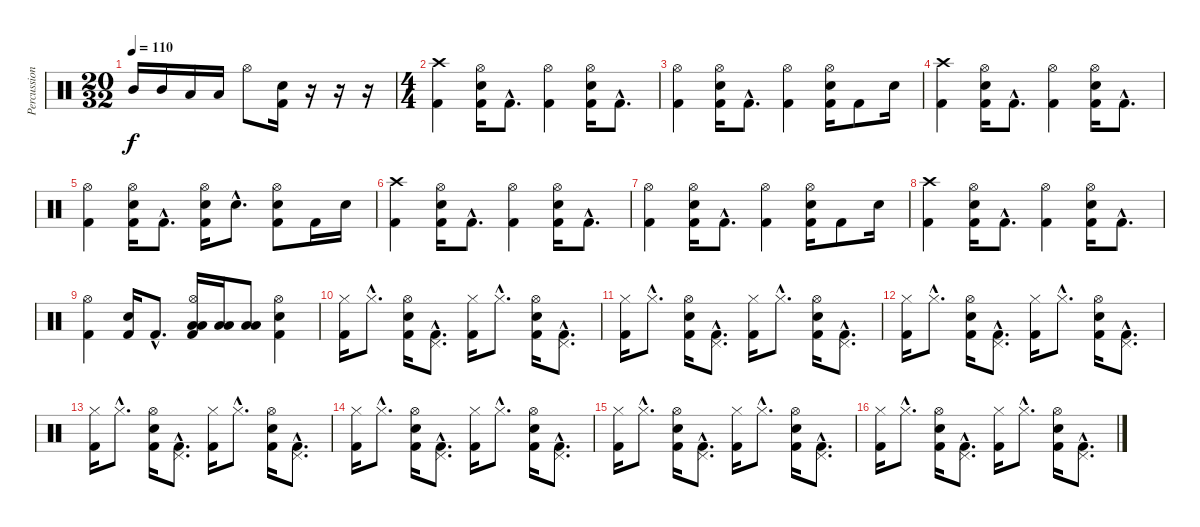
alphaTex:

\track ("Percussions" "Percussion") {instrument percussion}
\staff {score}
\articulation defaults
\ts (20 32)
\tempo 110
\clef neutral
\ks c "Mid Tom (hit)".16{dy f} "Mid Tom (hit)".16 "Low Tom (hit)".16 "Low Floor Tom (hit)".16 "Hi-Hat (open)".8
("Electric Snare (hit)" "Kick (hit) 2").16 r.16 r.16 r.16 |
\ts (4 4)
("Crash high (hit)" "Kick (hit) 2").4 ("Hi-Hat (open)" "Electric Snare (hit)" "Kick (hit) 2").16 "Kick (hit) 2"{hac}.8{d} ("Hi-Hat (open)" "Kick (hit) 2").4 ("Hi-Hat (open)" "Electric Snare (hit)" "Kick (hit) 2").16 "Kick (hit) 2"{hac}.8{d} |
("Hi-Hat (open)" "Kick (hit) 2").4 ("Hi-Hat (open)" "Electric Snare (hit)" "Kick (hit) 2").16 "Kick (hit) 2"{hac}.8{d} ("Hi-Hat (open)" "Kick (hit) 2").4 ("Hi-Hat (open)" "Electric Snare (hit)" "Kick (hit) 2").16 "Kick (hit) 2".8 "Electric Snare (hit)".16 |
("Crash high (hit)" "Kick (hit) 2").4 ("Hi-Hat (open)" "Electric Snare (hit)" "Kick (hit) 2").16 "Kick (hit) 2"{hac}.8{d} ("Hi-Hat (open)" "Kick (hit) 2").4 ("Hi-Hat (open)" "Electric Snare (hit)" "Kick (hit) 2").16 "Kick (hit) 2"{hac}.8{d} |
("Hi-Hat (open)" "Kick (hit) 2").4 ("Hi-Hat (open)" "Electric Snare (hit)" "Kick (hit) 2").16 "Kick (hit) 2"{hac}.8{d} ("Hi-Hat (open)" "Electric Snare (hit)" "Kick (hit) 2").16 "Electric Snare (hit)"{hac}.8{d} ("Hi-Hat (open)" "Electric Snare (hit)" "Kick (hit) 2").8 "Kick (hit) 2".16 "Electric Snare (hit)".16 |
("Crash high (hit)" "Kick (hit) 2").4 ("Hi-Hat (open)" "Electric Snare (hit)" "Kick (hit) 2").16 "Kick (hit) 2"{hac}.8{d} ("Hi-Hat (open)" "Kick (hit) 2").4 ("Hi-Hat (open)" "Electric Snare (hit)" "Kick (hit) 2").16 "Kick (hit) 2"{hac}.8{d} |
("Hi-Hat (open)" "Kick (hit) 2").4 ("Hi-Hat (open)" "Electric Snare (hit)" "Kick (hit) 2").16 "Kick (hit) 2"{hac}.8{d} ("Hi-Hat (open)" "Kick (hit) 2").4 ("Hi-Hat (open)" "Electric Snare (hit)" "Kick (hit) 2").16 "Kick (hit) 2".8 "Electric Snare (hit)".16 |
("Crash high (hit)" "Kick (hit) 2").4 ("Hi-Hat (open)" "Electric Snare (hit)" "Kick (hit) 2").16 "Kick (hit) 2"{hac}.8{d} ("Hi-Hat (open)" "Kick (hit) 2").4 ("Hi-Hat (open)" "Electric Snare (hit)" "Kick (hit) 2").16 "Kick (hit) 2"{hac}.8{d} |
("Hi-Hat (open)" "Kick (hit) 2").4 ("Electric Snare (hit)" "Kick (hit) 2").16 "Kick (hit) 2"{hac}.8{d} ("Hi-Hat (open)" "Low Tom (hit)" "Low Tom (hit)" "Kick (hit) 2").16 ("Low Tom (hit)" "Low Tom (hit)").16 ("Low Tom (hit)" "Low Tom (hit)").8 ("Hi-Hat (open)" "Electric Snare (hit)" "Kick (hit) 2").4 |
("Hi-Hat (closed)" "Kick (hit) 2").16 "Hi-Hat (closed)"{hac}.8{d} ("Hi-Hat (open)" "Electric Snare (hit)" "Kick (hit) 2").16 ("Pedal Hi-Hat (hit)"{hac} "Kick (hit) 2"{hac}).8{d} ("Hi-Hat (closed)" "Kick (hit) 2").16 "Hi-Hat (closed)"{hac}.8{d} ("Hi-Hat (open)" "Electric Snare (hit)" "Kick (hit) 2").16 ("Pedal Hi-Hat (hit)"{hac} "Kick (hit) 2"{hac}).8{d} |
("Hi-Hat (closed)" "Kick (hit) 2").16 "Hi-Hat (closed)"{hac}.8{d} ("Hi-Hat (open)" "Electric Snare (hit)" "Kick (hit) 2").16 ("Pedal Hi-Hat (hit)"{hac} "Kick (hit) 2"{hac}).8{d} ("Hi-Hat (closed)" "Kick (hit) 2").16 "Hi-Hat (closed)"{hac}.8{d} ("Hi-Hat (open)" "Electric Snare (hit)" "Kick (hit) 2").16 ("Pedal Hi-Hat (hit)"{hac} "Kick (hit) 2"{hac}).8{d} |
("Hi-Hat (closed)" "Kick (hit) 2").16 "Hi-Hat (closed)"{hac}.8{d} ("Hi-Hat (open)" "Electric Snare (hit)" "Kick (hit) 2").16 ("Pedal Hi-Hat (hit)"{hac} "Kick (hit) 2"{hac}).8{d} ("Hi-Hat (closed)" "Kick (hit) 2").16 "Hi-Hat (closed)"{hac}.8{d} ("Hi-Hat (open)" "Electric Snare (hit)" "Kick (hit) 2").16 ("Pedal Hi-Hat (hit)"{hac} "Kick (hit) 2"{hac}).8{d} |
("Hi-Hat (closed)" "Kick (hit) 2").16 "Hi-Hat (closed)"{hac}.8{d} ("Hi-Hat (open)" "Electric Snare (hit)" "Kick (hit) 2").16 ("Pedal Hi-Hat (hit)"{hac} "Kick (hit) 2"{hac}).8{d} ("Hi-Hat (closed)" "Kick (hit) 2").16 "Hi-Hat (closed)"{hac}.8{d} ("Hi-Hat (open)" "Electric Snare (hit)" "Kick (hit) 2").16 ("Pedal Hi-Hat (hit)"{hac} "Kick (hit) 2"{hac}).8{d} |
("Hi-Hat (closed)" "Kick (hit) 2").16 "Hi-Hat (closed)"{hac}.8{d} ("Hi-Hat (open)" "Electric Snare (hit)" "Kick (hit) 2").16 ("Pedal Hi-Hat (hit)"{hac} "Kick (hit) 2"{hac}).8{d} ("Hi-Hat (closed)" "Kick (hit) 2").16 "Hi-Hat (closed)"{hac}.8{d} ("Hi-Hat (open)" "Electric Snare (hit)" "Kick (hit) 2").16 ("Pedal Hi-Hat (hit)"{hac} "Kick (hit) 2"{hac}).8{d} |
("Hi-Hat (closed)" "Kick (hit) 2").16 "Hi-Hat (closed)"{hac}.8{d} ("Hi-Hat (open)" "Electric Snare (hit)" "Kick (hit) 2").16 ("Pedal Hi-Hat (hit)"{hac} "Kick (hit) 2"{hac}).8{d} ("Hi-Hat (closed)" "Kick (hit) 2").16 "Hi-Hat (closed)"{hac}.8{d} ("Hi-Hat (open)" "Electric Snare (hit)" "Kick (hit) 2").16 ("Pedal Hi-Hat (hit)"{hac} "Kick (hit) 2"{hac}).8{d} |
("Hi-Hat (closed)" "Kick (hit) 2").16 "Hi-Hat (closed)"{hac}.8{d} ("Hi-Hat (open)" "Electric Snare (hit)" "Kick (hit) 2").16 ("Pedal Hi-Hat (hit)"{hac} "Kick (hit) 2"{hac}).8{d} ("Hi-Hat (closed)" "Kick (hit) 2").16 "Hi-Hat (closed)"{hac}.8{d} ("Hi-Hat (open)" "Electric Snare (hit)" "Kick (hit) 2").16 ("Pedal Hi-Hat (hit)"{hac} "Kick (hit) 2"{hac}).8{d}
